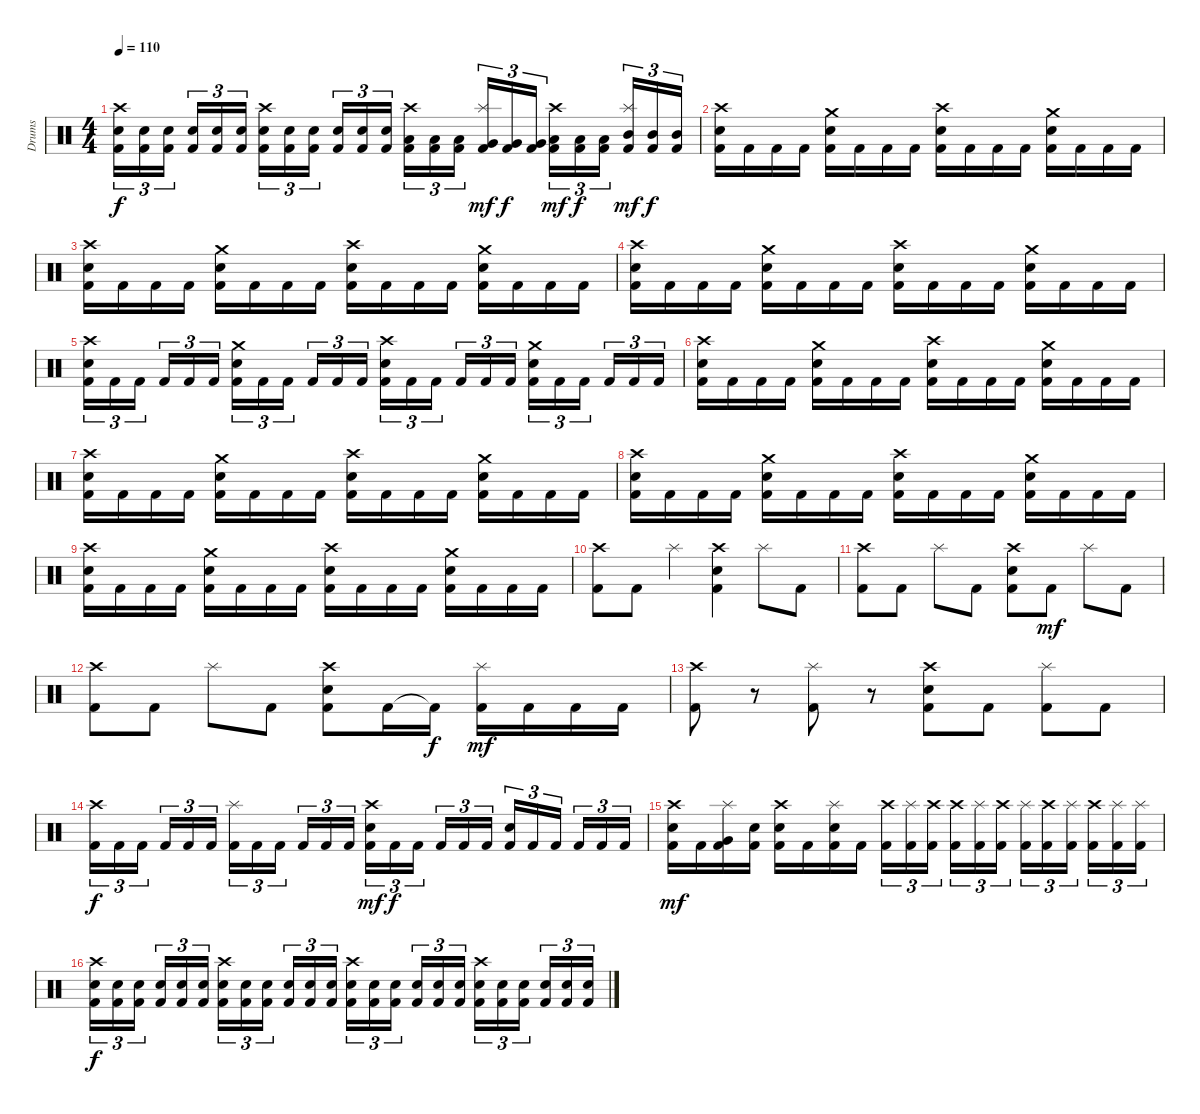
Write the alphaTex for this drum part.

\track ("Drums" "Drums") {instrument percussion}
\staff {score}
\articulation defaults
\ts (4 4)
\tempo 110
\clef neutral
\ks c
("Crash high (hit)" "Electric Snare (hit)" "Kick (hit) 2").16{tu (3 2) dy f} ("Electric Snare (hit)" "Kick (hit) 2").16{tu (3 2)} ("Electric Snare (hit)" "Kick (hit) 2").16{tu (3 2) beam splitsecondary} ("Electric Snare (hit)" "Kick (hit) 2").16{tu (3 2)} ("Electric Snare (hit)" "Kick (hit) 2").16{tu (3 2)} ("Electric Snare (hit)" "Kick (hit) 2").16{tu (3 2)} ("Crash high (hit)" "Electric Snare (hit)" "Kick (hit) 2").16{tu (3 2)} ("Electric Snare (hit)" "Kick (hit) 2").16{tu (3 2)} ("Electric Snare (hit)" "Kick (hit) 2").16{tu (3 2) beam splitsecondary} ("Electric Snare (hit)" "Kick (hit) 2").16{tu (3 2)} ("Electric Snare (hit)" "Kick (hit) 2").16{tu (3 2)} ("Electric Snare (hit)" "Kick (hit) 2").16{tu (3 2)} ("Crash high (hit)" "Low Tom (hit)" "Kick (hit) 2").16{tu (3 2)} ("Low Tom (hit)" "Kick (hit) 2").16{tu (3 2)} ("Low Tom (hit)" "Kick (hit) 2").16{tu (3 2) beam splitsecondary} ("Splash (hit)" "Very Low Tom (hit)" "Kick (hit) 2").16{tu (3 2) dy mf} ("Very Low Tom (hit)" "Kick (hit) 2").16{tu (3 2) dy f} ("Very Low Tom (hit)" "Kick (hit) 2").16{tu (3 2)} ("Crash high (hit)" "Low Floor Tom (hit)" "Kick (hit) 2").16{tu (3 2) dy mf} ("Low Floor Tom (hit)" "Kick (hit) 2").16{tu (3 2) dy f} ("Low Floor Tom (hit)" "Kick (hit) 2").16{tu (3 2) beam splitsecondary} ("Splash (hit)" "Mid Tom (hit)" "Kick (hit) 2").16{tu (3 2) dy mf} ("Mid Tom (hit)" "Kick (hit) 2").16{tu (3 2) dy f} ("Mid Tom (hit)" "Kick (hit) 2").16{tu (3 2)} |
("Crash high (hit)" "Electric Snare (hit)" "Kick (hit) 2").16 "Kick (hit) 2".16 "Kick (hit) 2".16 "Kick (hit) 2".16 ("Crash medium (hit)" "Electric Snare (hit)" "Kick (hit) 2").16 "Kick (hit) 2".16 "Kick (hit) 2".16 "Kick (hit) 2".16 ("Crash high (hit)" "Electric Snare (hit)" "Kick (hit) 2").16 "Kick (hit) 2".16 "Kick (hit) 2".16 "Kick (hit) 2".16 ("Crash medium (hit)" "Electric Snare (hit)" "Kick (hit) 2").16 "Kick (hit) 2".16 "Kick (hit) 2".16 "Kick (hit) 2".16 |
("Crash high (hit)" "Electric Snare (hit)" "Kick (hit) 2").16 "Kick (hit) 2".16 "Kick (hit) 2".16 "Kick (hit) 2".16 ("Crash medium (hit)" "Electric Snare (hit)" "Kick (hit) 2").16 "Kick (hit) 2".16 "Kick (hit) 2".16 "Kick (hit) 2".16 ("Crash high (hit)" "Electric Snare (hit)" "Kick (hit) 2").16 "Kick (hit) 2".16 "Kick (hit) 2".16 "Kick (hit) 2".16 ("Crash medium (hit)" "Electric Snare (hit)" "Kick (hit) 2").16 "Kick (hit) 2".16 "Kick (hit) 2".16 "Kick (hit) 2".16 |
("Crash high (hit)" "Electric Snare (hit)" "Kick (hit) 2").16 "Kick (hit) 2".16 "Kick (hit) 2".16 "Kick (hit) 2".16 ("Crash medium (hit)" "Electric Snare (hit)" "Kick (hit) 2").16 "Kick (hit) 2".16 "Kick (hit) 2".16 "Kick (hit) 2".16 ("Crash high (hit)" "Electric Snare (hit)" "Kick (hit) 2").16 "Kick (hit) 2".16 "Kick (hit) 2".16 "Kick (hit) 2".16 ("Crash medium (hit)" "Electric Snare (hit)" "Kick (hit) 2").16 "Kick (hit) 2".16 "Kick (hit) 2".16 "Kick (hit) 2".16 |
("Crash high (hit)" "Electric Snare (hit)" "Kick (hit) 2").16{tu (3 2)} "Kick (hit) 2".16{tu (3 2)} "Kick (hit) 2".16{tu (3 2) beam splitsecondary} "Kick (hit) 2".16{tu (3 2)} "Kick (hit) 2".16{tu (3 2)} "Kick (hit) 2".16{tu (3 2)} ("Crash medium (hit)" "Electric Snare (hit)" "Kick (hit) 2").16{tu (3 2)} "Kick (hit) 2".16{tu (3 2)} "Kick (hit) 2".16{tu (3 2) beam splitsecondary} "Kick (hit) 2".16{tu (3 2)} "Kick (hit) 2".16{tu (3 2)} "Kick (hit) 2".16{tu (3 2)} ("Crash high (hit)" "Electric Snare (hit)" "Kick (hit) 2").16{tu (3 2)} "Kick (hit) 2".16{tu (3 2)} "Kick (hit) 2".16{tu (3 2) beam splitsecondary} "Kick (hit) 2".16{tu (3 2)} "Kick (hit) 2".16{tu (3 2)} "Kick (hit) 2".16{tu (3 2)} ("Crash medium (hit)" "Electric Snare (hit)" "Kick (hit) 2").16{tu (3 2)} "Kick (hit) 2".16{tu (3 2)} "Kick (hit) 2".16{tu (3 2) beam splitsecondary} "Kick (hit) 2".16{tu (3 2)} "Kick (hit) 2".16{tu (3 2)} "Kick (hit) 2".16{tu (3 2)} |
("Crash high (hit)" "Electric Snare (hit)" "Kick (hit) 2").16 "Kick (hit) 2".16 "Kick (hit) 2".16 "Kick (hit) 2".16 ("Crash medium (hit)" "Electric Snare (hit)" "Kick (hit) 2").16 "Kick (hit) 2".16 "Kick (hit) 2".16 "Kick (hit) 2".16 ("Crash high (hit)" "Electric Snare (hit)" "Kick (hit) 2").16 "Kick (hit) 2".16 "Kick (hit) 2".16 "Kick (hit) 2".16 ("Crash medium (hit)" "Electric Snare (hit)" "Kick (hit) 2").16 "Kick (hit) 2".16 "Kick (hit) 2".16 "Kick (hit) 2".16 |
("Crash high (hit)" "Electric Snare (hit)" "Kick (hit) 2").16 "Kick (hit) 2".16 "Kick (hit) 2".16 "Kick (hit) 2".16 ("Crash medium (hit)" "Electric Snare (hit)" "Kick (hit) 2").16 "Kick (hit) 2".16 "Kick (hit) 2".16 "Kick (hit) 2".16 ("Crash high (hit)" "Electric Snare (hit)" "Kick (hit) 2").16 "Kick (hit) 2".16 "Kick (hit) 2".16 "Kick (hit) 2".16 ("Crash medium (hit)" "Electric Snare (hit)" "Kick (hit) 2").16 "Kick (hit) 2".16 "Kick (hit) 2".16 "Kick (hit) 2".16 |
("Crash high (hit)" "Electric Snare (hit)" "Kick (hit) 2").16 "Kick (hit) 2".16 "Kick (hit) 2".16 "Kick (hit) 2".16 ("Crash medium (hit)" "Electric Snare (hit)" "Kick (hit) 2").16 "Kick (hit) 2".16 "Kick (hit) 2".16 "Kick (hit) 2".16 ("Crash high (hit)" "Electric Snare (hit)" "Kick (hit) 2").16 "Kick (hit) 2".16 "Kick (hit) 2".16 "Kick (hit) 2".16 ("Crash medium (hit)" "Electric Snare (hit)" "Kick (hit) 2").16 "Kick (hit) 2".16 "Kick (hit) 2".16 "Kick (hit) 2".16 |
("Crash high (hit)" "Electric Snare (hit)" "Kick (hit) 2").16 "Kick (hit) 2".16 "Kick (hit) 2".16 "Kick (hit) 2".16 ("Crash medium (hit)" "Electric Snare (hit)" "Kick (hit) 2").16 "Kick (hit) 2".16 "Kick (hit) 2".16 "Kick (hit) 2".16 ("Crash high (hit)" "Electric Snare (hit)" "Kick (hit) 2").16 "Kick (hit) 2".16 "Kick (hit) 2".16 "Kick (hit) 2".16 ("Crash medium (hit)" "Electric Snare (hit)" "Kick (hit) 2").16 "Kick (hit) 2".16 "Kick (hit) 2".16 "Kick (hit) 2".16 |
("Crash high (hit)" "Kick (hit) 2").8 "Kick (hit) 2".8 "Splash (hit)".4 ("Crash high (hit)" "Electric Snare (hit)" "Kick (hit) 2").4 "Splash (hit)".8 "Kick (hit) 2".8 |
("Crash high (hit)" "Kick (hit) 2").8 "Kick (hit) 2".8 "Splash (hit)".8 "Kick (hit) 2".8 ("Crash high (hit)" "Electric Snare (hit)" "Kick (hit) 2").8 "Kick (hit) 2".8{dy mf} "Splash (hit)".8 "Kick (hit) 2".8 |
("Crash high (hit)" "Kick (hit) 2").8 "Kick (hit) 2".8 "Splash (hit)".8 "Kick (hit) 2".8 ("Crash high (hit)" "Electric Snare (hit)" "Kick (hit) 2").8 "Kick (hit) 2".16 "Kick (hit) 2"{t}.16{dy f} ("Splash (hit)" "Kick (hit) 2").16{dy mf} "Kick (hit) 2".16 "Kick (hit) 2".16 "Kick (hit) 2".16 |
("Crash high (hit)" "Kick (hit) 2").8 r.8 ("Splash (hit)" "Kick (hit) 2").8 r.8 ("Crash high (hit)" "Electric Snare (hit)" "Kick (hit) 2").8 "Kick (hit) 2".8 ("Splash (hit)" "Kick (hit) 2").8 "Kick (hit) 2".8 |
("Crash high (hit)" "Kick (hit) 2").16{tu (3 2) dy f} "Kick (hit) 2".16{tu (3 2)} "Kick (hit) 2".16{tu (3 2) beam splitsecondary} "Kick (hit) 2".16{tu (3 2)} "Kick (hit) 2".16{tu (3 2)} "Kick (hit) 2".16{tu (3 2)} ("Splash (hit)" "Kick (hit) 2").16{tu (3 2)} "Kick (hit) 2".16{tu (3 2)} "Kick (hit) 2".16{tu (3 2) beam splitsecondary} "Kick (hit) 2".16{tu (3 2)} "Kick (hit) 2".16{tu (3 2)} "Kick (hit) 2".16{tu (3 2)} ("Crash high (hit)" "Electric Snare (hit)" "Kick (hit) 2").16{tu (3 2) dy mf} "Kick (hit) 2".16{tu (3 2) dy f} "Kick (hit) 2".16{tu (3 2) beam splitsecondary} "Kick (hit) 2".16{tu (3 2)} "Kick (hit) 2".16{tu (3 2)} "Kick (hit) 2".16{tu (3 2)} ("Snare (hit)" "Kick (hit) 2").16{tu (3 2)} "Kick (hit) 2".16{tu (3 2)} "Kick (hit) 2".16{tu (3 2) beam splitsecondary} "Kick (hit) 2".16{tu (3 2)} "Kick (hit) 2".16{tu (3 2)} "Kick (hit) 2".16{tu (3 2)} |
("Crash high (hit)" "Electric Snare (hit)" "Kick (hit) 2").16{dy mf} "Kick (hit) 2".16 ("Splash (hit)" "Very Low Tom (hit)" "Kick (hit) 2").16 ("Electric Snare (hit)" "Kick (hit) 2").16 ("Crash high (hit)" "Electric Snare (hit)" "Kick (hit) 2").16 "Kick (hit) 2".16 ("Splash (hit)" "Electric Snare (hit)" "Kick (hit) 2").16 "Kick (hit) 2".16 ("Crash high (hit)" "Kick (hit) 2").16{tu (3 2)} ("Splash (hit)" "Kick (hit) 2").16{tu (3 2)} ("Crash high (hit)" "Kick (hit) 2").16{tu (3 2) beam splitsecondary} ("Crash high (hit)" "Kick (hit) 2").16{tu (3 2)} ("Splash (hit)" "Kick (hit) 2").16{tu (3 2)} ("Crash high (hit)" "Kick (hit) 2").16{tu (3 2)} ("Splash (hit)" "Kick (hit) 2").16{tu (3 2)} ("Crash high (hit)" "Kick (hit) 2").16{tu (3 2)} ("Splash (hit)" "Kick (hit) 2").16{tu (3 2) beam splitsecondary} ("Crash high (hit)" "Kick (hit) 2").16{tu (3 2)} ("Splash (hit)" "Kick (hit) 2").16{tu (3 2)} ("Splash (hit)" "Kick (hit) 2").16{tu (3 2)} |
("Crash high (hit)" "Electric Snare (hit)" "Kick (hit) 2").16{tu (3 2) dy f} ("Electric Snare (hit)" "Kick (hit) 2").16{tu (3 2)} ("Electric Snare (hit)" "Kick (hit) 2").16{tu (3 2) beam splitsecondary} ("Electric Snare (hit)" "Kick (hit) 2").16{tu (3 2)} ("Electric Snare (hit)" "Kick (hit) 2").16{tu (3 2)} ("Electric Snare (hit)" "Kick (hit) 2").16{tu (3 2)} ("Crash high (hit)" "Electric Snare (hit)" "Kick (hit) 2").16{tu (3 2)} ("Electric Snare (hit)" "Kick (hit) 2").16{tu (3 2)} ("Electric Snare (hit)" "Kick (hit) 2").16{tu (3 2) beam splitsecondary} ("Electric Snare (hit)" "Kick (hit) 2").16{tu (3 2)} ("Electric Snare (hit)" "Kick (hit) 2").16{tu (3 2)} ("Electric Snare (hit)" "Kick (hit) 2").16{tu (3 2)} ("Crash high (hit)" "Electric Snare (hit)" "Kick (hit) 2").16{tu (3 2)} ("Electric Snare (hit)" "Kick (hit) 2").16{tu (3 2)} ("Electric Snare (hit)" "Kick (hit) 2").16{tu (3 2) beam splitsecondary} ("Electric Snare (hit)" "Kick (hit) 2").16{tu (3 2)} ("Electric Snare (hit)" "Kick (hit) 2").16{tu (3 2)} ("Electric Snare (hit)" "Kick (hit) 2").16{tu (3 2)} ("Crash high (hit)" "Electric Snare (hit)" "Kick (hit) 2").16{tu (3 2)} ("Electric Snare (hit)" "Kick (hit) 2").16{tu (3 2)} ("Electric Snare (hit)" "Kick (hit) 2").16{tu (3 2) beam splitsecondary} ("Electric Snare (hit)" "Kick (hit) 2").16{tu (3 2)} ("Electric Snare (hit)" "Kick (hit) 2").16{tu (3 2)} ("Electric Snare (hit)" "Kick (hit) 2").16{tu (3 2)}
